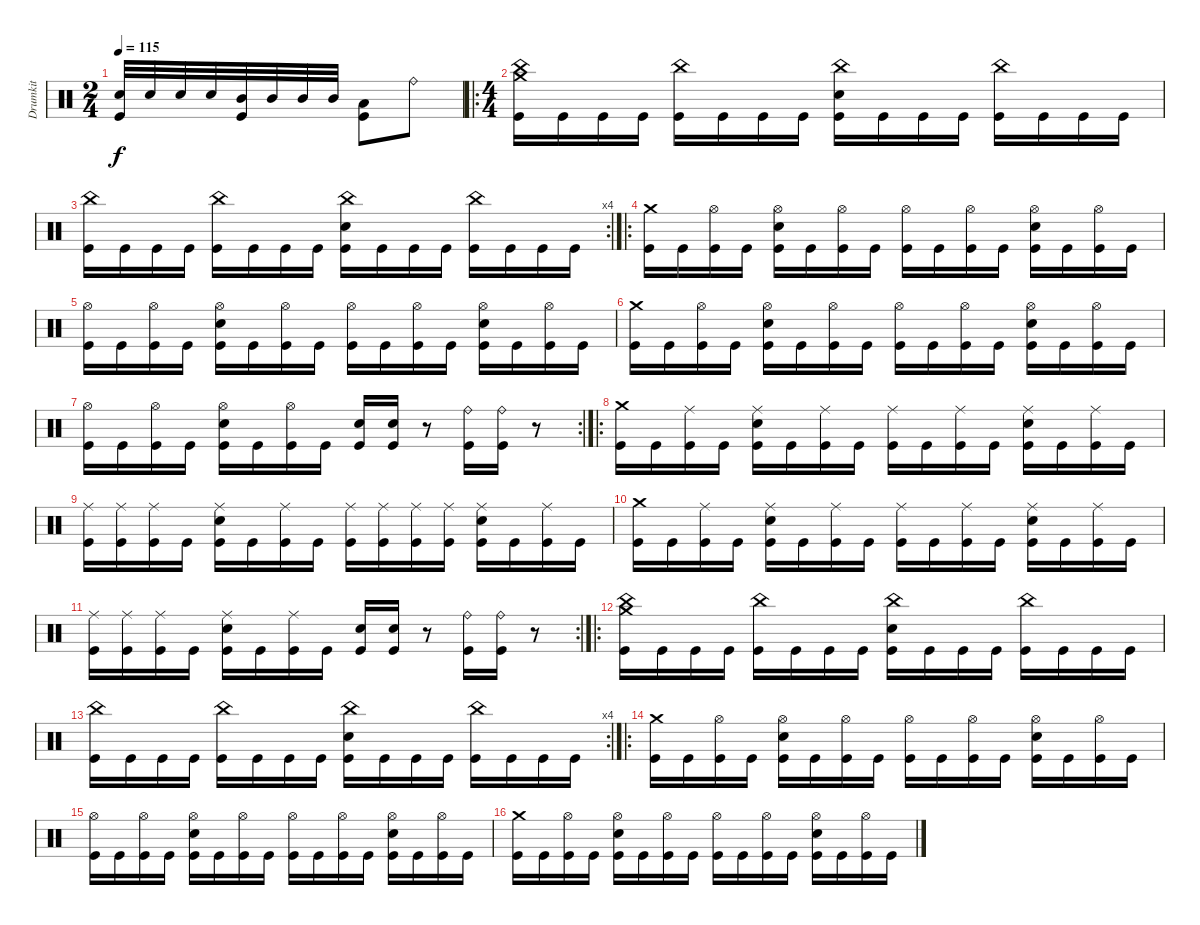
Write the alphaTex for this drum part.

\track ("Drumkit" "Drumkit") {instrument percussion}
\staff {score}
\articulation defaults
\ts (2 4)
\tempo 115
\clef neutral
\ks c
("Snare (hit) 2" "Kick (hit)").32{dy f} "Snare (hit) 2".32 "Snare (hit) 2".32 "Snare (hit) 2".32 ("Mid Tom (hit)" "Kick (hit)").32 "Mid Tom (hit)".32 "Mid Tom (hit)".32 "Mid Tom (hit)".32 ("Low Tom (hit)" "Kick (hit)").8 "Ride (bell)".8 |
\ro
\ts (4 4)
("Kick (hit)" "Crash medium (hit)" "China (hit)").16 "Kick (hit)".16 "Kick (hit)".16 "Kick (hit)".16 ("Kick (hit)" "China (hit)").16 "Kick (hit)".16 "Kick (hit)".16 "Kick (hit)".16 ("Kick (hit)" "Snare (hit) 2" "China (hit)").16 "Kick (hit)".16 "Kick (hit)".16 "Kick (hit)".16 ("Kick (hit)" "China (hit)").16 "Kick (hit)".16 "Kick (hit)".16 "Kick (hit)".16 |
\rc 4
("Kick (hit)" "China (hit)").16 "Kick (hit)".16 "Kick (hit)".16 "Kick (hit)".16 ("Kick (hit)" "China (hit)").16 "Kick (hit)".16 "Kick (hit)".16 "Kick (hit)".16 ("Kick (hit)" "Snare (hit) 2" "China (hit)").16 "Kick (hit)".16 "Kick (hit)".16 "Kick (hit)".16 ("Kick (hit)" "China (hit)").16 "Kick (hit)".16 "Kick (hit)".16 "Kick (hit)".16 |
\ro
("Kick (hit)" "Crash medium (hit)").16 "Kick (hit)".16 ("Kick (hit)" "Hi-Hat (open)").16 "Kick (hit)".16 ("Kick (hit)" "Hi-Hat (open)" "Snare (hit) 2").16 "Kick (hit)".16 ("Kick (hit)" "Hi-Hat (open)").16 "Kick (hit)".16 ("Kick (hit)" "Hi-Hat (open)").16 "Kick (hit)".16 ("Kick (hit)" "Hi-Hat (open)").16 "Kick (hit)".16 ("Kick (hit)" "Hi-Hat (open)" "Snare (hit) 2").16 "Kick (hit)".16 ("Kick (hit)" "Hi-Hat (open)").16 "Kick (hit)".16 |
("Kick (hit)" "Hi-Hat (open)").16 "Kick (hit)".16 ("Kick (hit)" "Hi-Hat (open)").16 "Kick (hit)".16 ("Kick (hit)" "Snare (hit) 2" "Hi-Hat (open)").16 "Kick (hit)".16 ("Kick (hit)" "Hi-Hat (open)").16 "Kick (hit)".16 ("Kick (hit)" "Hi-Hat (open)").16 "Kick (hit)".16 ("Kick (hit)" "Hi-Hat (open)").16 "Kick (hit)".16 ("Kick (hit)" "Snare (hit) 2" "Hi-Hat (open)").16 "Kick (hit)".16 ("Kick (hit)" "Hi-Hat (open)").16 "Kick (hit)".16 |
("Kick (hit)" "Crash medium (hit)").16 "Kick (hit)".16 ("Kick (hit)" "Hi-Hat (open)").16 "Kick (hit)".16 ("Kick (hit)" "Hi-Hat (open)" "Snare (hit) 2").16 "Kick (hit)".16 ("Kick (hit)" "Hi-Hat (open)").16 "Kick (hit)".16 ("Kick (hit)" "Hi-Hat (open)").16 "Kick (hit)".16 ("Kick (hit)" "Hi-Hat (open)").16 "Kick (hit)".16 ("Kick (hit)" "Hi-Hat (open)" "Snare (hit) 2").16 "Kick (hit)".16 ("Kick (hit)" "Hi-Hat (open)").16 "Kick (hit)".16 |
\rc 2
("Kick (hit)" "Hi-Hat (open)").16 "Kick (hit)".16 ("Kick (hit)" "Hi-Hat (open)").16 "Kick (hit)".16 ("Kick (hit)" "Hi-Hat (open)" "Snare (hit) 2").16 "Kick (hit)".16 ("Kick (hit)" "Hi-Hat (open)").16 "Kick (hit)".16 ("Kick (hit)" "Snare (hit) 2").16 ("Kick (hit)" "Snare (hit) 2").16 r.8 ("Kick (hit)" "Ride (bell)").16 ("Kick (hit)" "Ride (bell)").16 r.8 |
\ro
("Kick (hit)" "Crash medium (hit)").16 "Kick (hit)".16 ("Kick (hit)" "Ride (middle)").16 "Kick (hit)".16 ("Kick (hit)" "Snare (hit) 2" "Ride (middle)").16 "Kick (hit)".16 ("Kick (hit)" "Ride (middle)").16 "Kick (hit)".16 ("Kick (hit)" "Ride (middle)").16 "Kick (hit)".16 ("Kick (hit)" "Ride (middle)").16 "Kick (hit)".16 ("Kick (hit)" "Snare (hit) 2" "Ride (middle)").16 "Kick (hit)".16 ("Kick (hit)" "Ride (middle)").16 "Kick (hit)".16 |
("Kick (hit)" "Ride (middle)").16 ("Kick (hit)" "Ride (middle)").16 ("Kick (hit)" "Ride (middle)").16 "Kick (hit)".16 ("Kick (hit)" "Snare (hit) 2" "Ride (middle)").16 "Kick (hit)".16 ("Kick (hit)" "Ride (middle)").16 "Kick (hit)".16 ("Kick (hit)" "Ride (middle)").16 ("Kick (hit)" "Ride (middle)").16 ("Kick (hit)" "Ride (middle)").16 ("Kick (hit)" "Ride (middle)").16 ("Kick (hit)" "Snare (hit) 2" "Ride (middle)").16 "Kick (hit)".16 ("Kick (hit)" "Ride (middle)").16 "Kick (hit)".16 |
("Kick (hit)" "Crash medium (hit)").16 "Kick (hit)".16 ("Kick (hit)" "Ride (middle)").16 "Kick (hit)".16 ("Kick (hit)" "Snare (hit) 2" "Ride (middle)").16 "Kick (hit)".16 ("Kick (hit)" "Ride (middle)").16 "Kick (hit)".16 ("Kick (hit)" "Ride (middle)").16 "Kick (hit)".16 ("Kick (hit)" "Ride (middle)").16 "Kick (hit)".16 ("Kick (hit)" "Snare (hit) 2" "Ride (middle)").16 "Kick (hit)".16 ("Kick (hit)" "Ride (middle)").16 "Kick (hit)".16 |
\rc 2
("Kick (hit)" "Ride (middle)").16 ("Kick (hit)" "Ride (middle)").16 ("Kick (hit)" "Ride (middle)").16 "Kick (hit)".16 ("Kick (hit)" "Snare (hit) 2" "Ride (middle)").16 "Kick (hit)".16 ("Kick (hit)" "Ride (middle)").16 "Kick (hit)".16 ("Kick (hit)" "Snare (hit) 2").16 ("Kick (hit)" "Snare (hit) 2").16 r.8 ("Kick (hit)" "Ride (bell)").16 ("Kick (hit)" "Ride (bell)").16 r.8 |
\ro
("Kick (hit)" "Crash medium (hit)" "China (hit)").16 "Kick (hit)".16 "Kick (hit)".16 "Kick (hit)".16 ("Kick (hit)" "China (hit)").16 "Kick (hit)".16 "Kick (hit)".16 "Kick (hit)".16 ("Kick (hit)" "Snare (hit) 2" "China (hit)").16 "Kick (hit)".16 "Kick (hit)".16 "Kick (hit)".16 ("Kick (hit)" "China (hit)").16 "Kick (hit)".16 "Kick (hit)".16 "Kick (hit)".16 |
\rc 4
("Kick (hit)" "China (hit)").16 "Kick (hit)".16 "Kick (hit)".16 "Kick (hit)".16 ("Kick (hit)" "China (hit)").16 "Kick (hit)".16 "Kick (hit)".16 "Kick (hit)".16 ("Kick (hit)" "Snare (hit) 2" "China (hit)").16 "Kick (hit)".16 "Kick (hit)".16 "Kick (hit)".16 ("Kick (hit)" "China (hit)").16 "Kick (hit)".16 "Kick (hit)".16 "Kick (hit)".16 |
\ro
("Kick (hit)" "Crash medium (hit)").16 "Kick (hit)".16 ("Kick (hit)" "Hi-Hat (open)").16 "Kick (hit)".16 ("Kick (hit)" "Hi-Hat (open)" "Snare (hit) 2").16 "Kick (hit)".16 ("Kick (hit)" "Hi-Hat (open)").16 "Kick (hit)".16 ("Kick (hit)" "Hi-Hat (open)").16 "Kick (hit)".16 ("Kick (hit)" "Hi-Hat (open)").16 "Kick (hit)".16 ("Kick (hit)" "Hi-Hat (open)" "Snare (hit) 2").16 "Kick (hit)".16 ("Kick (hit)" "Hi-Hat (open)").16 "Kick (hit)".16 |
("Kick (hit)" "Hi-Hat (open)").16 "Kick (hit)".16 ("Kick (hit)" "Hi-Hat (open)").16 "Kick (hit)".16 ("Kick (hit)" "Snare (hit) 2" "Hi-Hat (open)").16 "Kick (hit)".16 ("Kick (hit)" "Hi-Hat (open)").16 "Kick (hit)".16 ("Kick (hit)" "Hi-Hat (open)").16 "Kick (hit)".16 ("Kick (hit)" "Hi-Hat (open)").16 "Kick (hit)".16 ("Kick (hit)" "Snare (hit) 2" "Hi-Hat (open)").16 "Kick (hit)".16 ("Kick (hit)" "Hi-Hat (open)").16 "Kick (hit)".16 |
("Kick (hit)" "Crash medium (hit)").16 "Kick (hit)".16 ("Kick (hit)" "Hi-Hat (open)").16 "Kick (hit)".16 ("Kick (hit)" "Hi-Hat (open)" "Snare (hit) 2").16 "Kick (hit)".16 ("Kick (hit)" "Hi-Hat (open)").16 "Kick (hit)".16 ("Kick (hit)" "Hi-Hat (open)").16 "Kick (hit)".16 ("Kick (hit)" "Hi-Hat (open)").16 "Kick (hit)".16 ("Kick (hit)" "Hi-Hat (open)" "Snare (hit) 2").16 "Kick (hit)".16 ("Kick (hit)" "Hi-Hat (open)").16 "Kick (hit)".16
